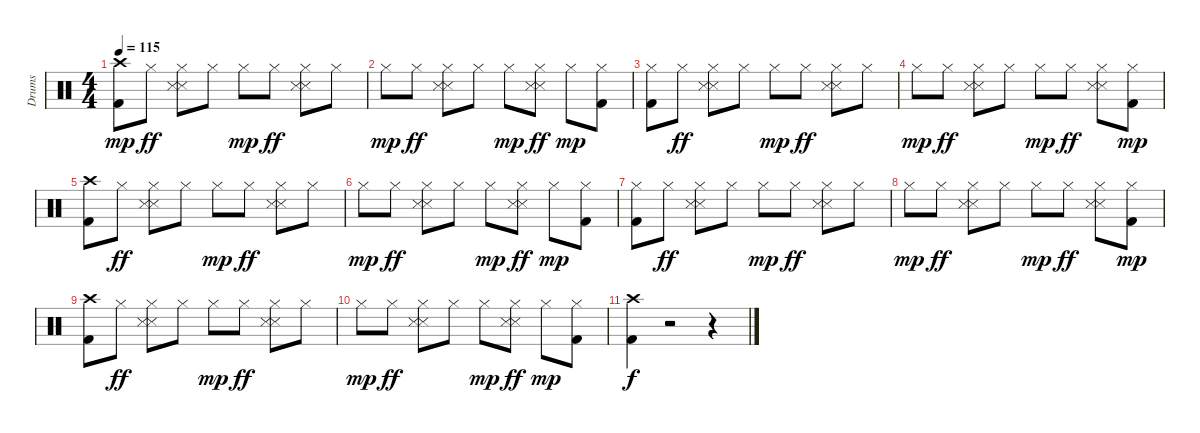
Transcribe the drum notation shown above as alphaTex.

\track ("Drums" "Drums") {instrument percussion}
\staff {score}
\articulation defaults
\ts (4 4)
\tempo 115
\clef neutral
\ks c
("Crash high (hit)" "Kick (hit) 2").8{dy mp} "Hi-Hat (closed)".8{dy ff} ("Hi-Hat (closed)" "Snare (side stick) 3" "Snare (side stick) 3").8 "Hi-Hat (closed)".8 "Hi-Hat (closed)".8{dy mp} "Hi-Hat (closed)".8{dy ff} ("Hi-Hat (closed)" "Snare (side stick) 3" "Snare (side stick) 3").8 "Hi-Hat (closed)".8 |
"Hi-Hat (closed)".8{dy mp} "Hi-Hat (closed)".8{dy ff} ("Hi-Hat (closed)" "Snare (side stick) 3" "Snare (side stick) 3").8 "Hi-Hat (closed)".8 "Hi-Hat (closed)".8{dy mp} ("Hi-Hat (closed)" "Snare (side stick) 3" "Snare (side stick) 3").8{dy ff} "Hi-Hat (closed)".8{dy mp} ("Hi-Hat (closed)" "Kick (hit) 2").8 |
("Hi-Hat (closed)" "Kick (hit) 2").8 "Hi-Hat (closed)".8{dy ff} ("Hi-Hat (closed)" "Snare (side stick) 3" "Snare (side stick) 3").8 "Hi-Hat (closed)".8 "Hi-Hat (closed)".8{dy mp} "Hi-Hat (closed)".8{dy ff} ("Hi-Hat (closed)" "Snare (side stick) 3" "Snare (side stick) 3").8 "Hi-Hat (closed)".8 |
"Hi-Hat (closed)".8{dy mp} "Hi-Hat (closed)".8{dy ff} ("Hi-Hat (closed)" "Snare (side stick) 3" "Snare (side stick) 3").8 "Hi-Hat (closed)".8 "Hi-Hat (closed)".8{dy mp} "Hi-Hat (closed)".8{dy ff} ("Hi-Hat (closed)" "Snare (side stick) 3" "Snare (side stick) 3").8 ("Hi-Hat (closed)" "Kick (hit) 2").8{dy mp} |
("Crash high (hit)" "Kick (hit) 2").8 "Hi-Hat (closed)".8{dy ff} ("Hi-Hat (closed)" "Snare (side stick) 3" "Snare (side stick) 3").8 "Hi-Hat (closed)".8 "Hi-Hat (closed)".8{dy mp} "Hi-Hat (closed)".8{dy ff} ("Hi-Hat (closed)" "Snare (side stick) 3" "Snare (side stick) 3").8 "Hi-Hat (closed)".8 |
"Hi-Hat (closed)".8{dy mp} "Hi-Hat (closed)".8{dy ff} ("Hi-Hat (closed)" "Snare (side stick) 3" "Snare (side stick) 3").8 "Hi-Hat (closed)".8 "Hi-Hat (closed)".8{dy mp} ("Hi-Hat (closed)" "Snare (side stick) 3" "Snare (side stick) 3").8{dy ff} "Hi-Hat (closed)".8{dy mp} ("Hi-Hat (closed)" "Kick (hit) 2").8 |
("Hi-Hat (closed)" "Kick (hit) 2").8 "Hi-Hat (closed)".8{dy ff} ("Hi-Hat (closed)" "Snare (side stick) 3" "Snare (side stick) 3").8 "Hi-Hat (closed)".8 "Hi-Hat (closed)".8{dy mp} "Hi-Hat (closed)".8{dy ff} ("Hi-Hat (closed)" "Snare (side stick) 3" "Snare (side stick) 3").8 "Hi-Hat (closed)".8 |
"Hi-Hat (closed)".8{dy mp} "Hi-Hat (closed)".8{dy ff} ("Hi-Hat (closed)" "Snare (side stick) 3" "Snare (side stick) 3").8 "Hi-Hat (closed)".8 "Hi-Hat (closed)".8{dy mp} "Hi-Hat (closed)".8{dy ff} ("Hi-Hat (closed)" "Snare (side stick) 3" "Snare (side stick) 3").8 ("Hi-Hat (closed)" "Kick (hit) 2").8{dy mp} |
("Crash high (hit)" "Kick (hit) 2").8 "Hi-Hat (closed)".8{dy ff} ("Hi-Hat (closed)" "Snare (side stick) 3" "Snare (side stick) 3").8 "Hi-Hat (closed)".8 "Hi-Hat (closed)".8{dy mp} "Hi-Hat (closed)".8{dy ff} ("Hi-Hat (closed)" "Snare (side stick) 3" "Snare (side stick) 3").8 "Hi-Hat (closed)".8 |
"Hi-Hat (closed)".8{dy mp} "Hi-Hat (closed)".8{dy ff} ("Hi-Hat (closed)" "Snare (side stick) 3" "Snare (side stick) 3").8 "Hi-Hat (closed)".8 "Hi-Hat (closed)".8{dy mp} ("Hi-Hat (closed)" "Snare (side stick) 3" "Snare (side stick) 3").8{dy ff} "Hi-Hat (closed)".8{dy mp} ("Hi-Hat (closed)" "Kick (hit) 2").8 |
("Crash high (hit)" "Kick (hit) 2").4{dy f} r.2 r.4
